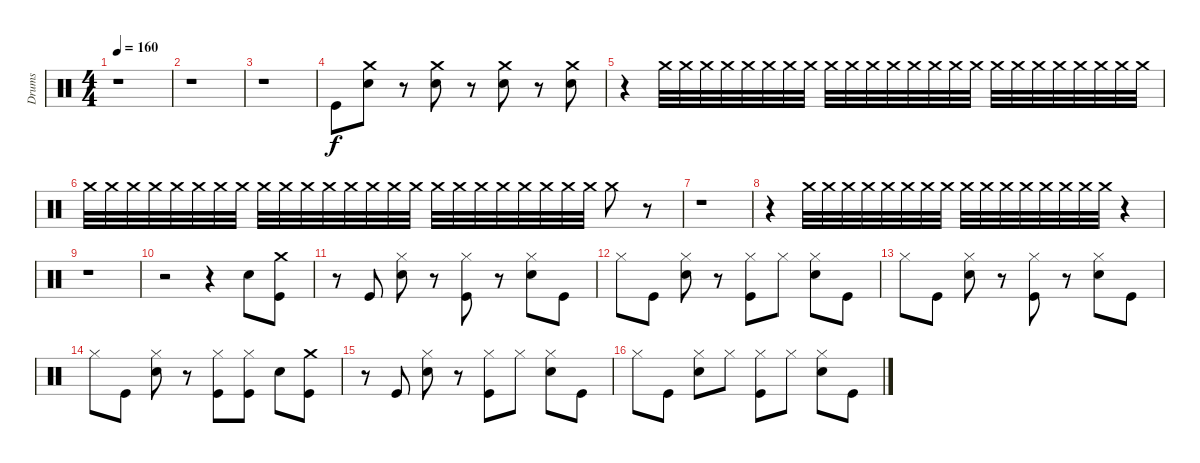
\track ("Drums" "Drums") {instrument percussion}
\staff {score}
\articulation defaults
\ts (4 4)
\tempo 160
\clef neutral
\ks c
r.1{dy f} |
r.1 |
r.1 |
"Kick (hit)".8 ("Crash medium (hit)" "Snare (hit) 2").8 r.8 ("Snare (hit) 2" "Crash medium (hit)").8 r.8 ("Crash medium (hit)" "Snare (hit) 2").8 r.8 ("Crash medium (hit)" "Snare (hit) 2").8 |
r.4 "Crash medium (hit)".32 "Crash medium (hit)".32 "Crash medium (hit)".32 "Crash medium (hit)".32 "Crash medium (hit)".32 "Crash medium (hit)".32 "Crash medium (hit)".32 "Crash medium (hit)".32 "Crash medium (hit)".32 "Crash medium (hit)".32 "Crash medium (hit)".32 "Crash medium (hit)".32 "Crash medium (hit)".32 "Crash medium (hit)".32 "Crash medium (hit)".32 "Crash medium (hit)".32 "Crash medium (hit)".32 "Crash medium (hit)".32 "Crash medium (hit)".32 "Crash medium (hit)".32 "Crash medium (hit)".32 "Crash medium (hit)".32 "Crash medium (hit)".32 "Crash medium (hit)".32 |
"Crash medium (hit)".32 "Crash medium (hit)".32 "Crash medium (hit)".32 "Crash medium (hit)".32 "Crash medium (hit)".32 "Crash medium (hit)".32 "Crash medium (hit)".32 "Crash medium (hit)".32 "Crash medium (hit)".32 "Crash medium (hit)".32 "Crash medium (hit)".32 "Crash medium (hit)".32 "Crash medium (hit)".32 "Crash medium (hit)".32 "Crash medium (hit)".32 "Crash medium (hit)".32 "Crash medium (hit)".32 "Crash medium (hit)".32 "Crash medium (hit)".32 "Crash medium (hit)".32 "Crash medium (hit)".32 "Crash medium (hit)".32 "Crash medium (hit)".32 "Crash medium (hit)".32 "Crash medium (hit)".8 r.8 |
r.1 |
r.4 "Crash medium (hit)".32 "Crash medium (hit)".32 "Crash medium (hit)".32 "Crash medium (hit)".32 "Crash medium (hit)".32 "Crash medium (hit)".32 "Crash medium (hit)".32 "Crash medium (hit)".32 "Crash medium (hit)".32 "Crash medium (hit)".32 "Crash medium (hit)".32 "Crash medium (hit)".32 "Crash medium (hit)".32 "Crash medium (hit)".32 "Crash medium (hit)".32 "Crash medium (hit)".32 r.4 |
r.1 |
r.2 r.4 "Snare (hit) 2".8 ("Crash medium (hit)" "Kick (hit)").8 |
r.8 "Kick (hit)".8 ("Hi-Hat (closed)" "Snare (hit) 2").8 r.8 ("Kick (hit)" "Hi-Hat (closed)").8 r.8 ("Hi-Hat (closed)" "Snare (hit) 2").8 "Kick (hit)".8 |
"Hi-Hat (closed)".8 "Kick (hit)".8 ("Hi-Hat (closed)" "Snare (hit) 2").8 r.8 ("Hi-Hat (closed)" "Kick (hit)").8 "Hi-Hat (closed)".8 ("Snare (hit) 2" "Hi-Hat (closed)").8 "Kick (hit)".8 |
"Hi-Hat (closed)".8 "Kick (hit)".8 ("Hi-Hat (closed)" "Snare (hit) 2").8 r.8 ("Kick (hit)" "Hi-Hat (closed)").8 r.8 ("Hi-Hat (closed)" "Snare (hit) 2").8 "Kick (hit)".8 |
"Hi-Hat (closed)".8 "Kick (hit)".8 ("Hi-Hat (closed)" "Snare (hit) 2").8 r.8 ("Kick (hit)" "Hi-Hat (closed)").8 ("Hi-Hat (closed)" "Kick (hit)").8 "Snare (hit) 2".8 ("Crash medium (hit)" "Kick (hit)").8 |
r.8 "Kick (hit)".8 ("Hi-Hat (closed)" "Snare (hit) 2").8 r.8 ("Kick (hit)" "Hi-Hat (closed)").8 "Hi-Hat (closed)".8 ("Hi-Hat (closed)" "Snare (hit) 2").8 "Kick (hit)".8 |
"Hi-Hat (closed)".8 "Kick (hit)".8 ("Hi-Hat (closed)" "Snare (hit) 2").8 "Hi-Hat (closed)".8 ("Kick (hit)" "Hi-Hat (closed)").8 "Hi-Hat (closed)".8 ("Snare (hit) 2" "Hi-Hat (closed)").8 "Kick (hit)".8
